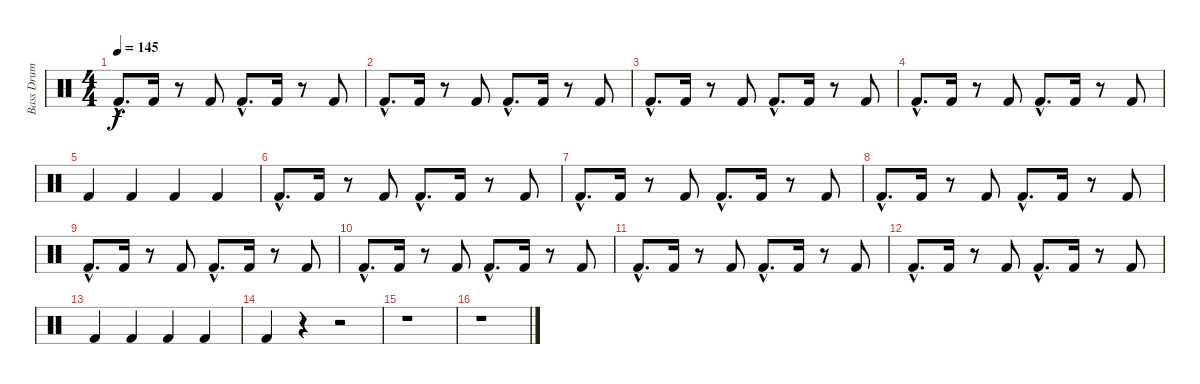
\track ("Bass Drum" "Bass Drum") {instrument percussion}
\staff {score}
\articulation defaults
\ts (4 4)
\tempo 145
\clef neutral
\ks c "Kick (hit) 2"{hac}.8{d dy f} "Kick (hit) 2".16
r.8 "Kick (hit) 2".8 "Kick (hit) 2"{hac}.8{d} "Kick (hit) 2".16 r.8 "Kick (hit) 2".8 |
"Kick (hit) 2"{hac}.8{d} "Kick (hit) 2".16 r.8 "Kick (hit) 2".8 "Kick (hit) 2"{hac}.8{d} "Kick (hit) 2".16 r.8 "Kick (hit) 2".8 |
"Kick (hit) 2"{hac}.8{d} "Kick (hit) 2".16 r.8 "Kick (hit) 2".8 "Kick (hit) 2"{hac}.8{d} "Kick (hit) 2".16 r.8 "Kick (hit) 2".8 |
"Kick (hit) 2"{hac}.8{d} "Kick (hit) 2".16 r.8 "Kick (hit) 2".8 "Kick (hit) 2"{hac}.8{d} "Kick (hit) 2".16 r.8 "Kick (hit) 2".8 |
"Kick (hit) 2".4 "Kick (hit) 2".4 "Kick (hit) 2".4 "Kick (hit) 2".4 |
"Kick (hit) 2"{hac}.8{d} "Kick (hit) 2".16 r.8 "Kick (hit) 2".8 "Kick (hit) 2"{hac}.8{d} "Kick (hit) 2".16 r.8 "Kick (hit) 2".8 |
"Kick (hit) 2"{hac}.8{d} "Kick (hit) 2".16 r.8 "Kick (hit) 2".8 "Kick (hit) 2"{hac}.8{d} "Kick (hit) 2".16 r.8 "Kick (hit) 2".8 |
"Kick (hit) 2"{hac}.8{d} "Kick (hit) 2".16 r.8 "Kick (hit) 2".8 "Kick (hit) 2"{hac}.8{d} "Kick (hit) 2".16 r.8 "Kick (hit) 2".8 |
"Kick (hit) 2"{hac}.8{d} "Kick (hit) 2".16 r.8 "Kick (hit) 2".8 "Kick (hit) 2"{hac}.8{d} "Kick (hit) 2".16 r.8 "Kick (hit) 2".8 |
"Kick (hit) 2"{hac}.8{d} "Kick (hit) 2".16 r.8 "Kick (hit) 2".8 "Kick (hit) 2"{hac}.8{d} "Kick (hit) 2".16 r.8 "Kick (hit) 2".8 |
"Kick (hit) 2"{hac}.8{d} "Kick (hit) 2".16 r.8 "Kick (hit) 2".8 "Kick (hit) 2"{hac}.8{d} "Kick (hit) 2".16 r.8 "Kick (hit) 2".8 |
"Kick (hit) 2"{hac}.8{d} "Kick (hit) 2".16 r.8 "Kick (hit) 2".8 "Kick (hit) 2"{hac}.8{d} "Kick (hit) 2".16 r.8 "Kick (hit) 2".8 |
"Kick (hit) 2".4 "Kick (hit) 2".4 "Kick (hit) 2".4 "Kick (hit) 2".4 |
"Kick (hit) 2".4 r.4 r.2 |
r.1 |
r.1
